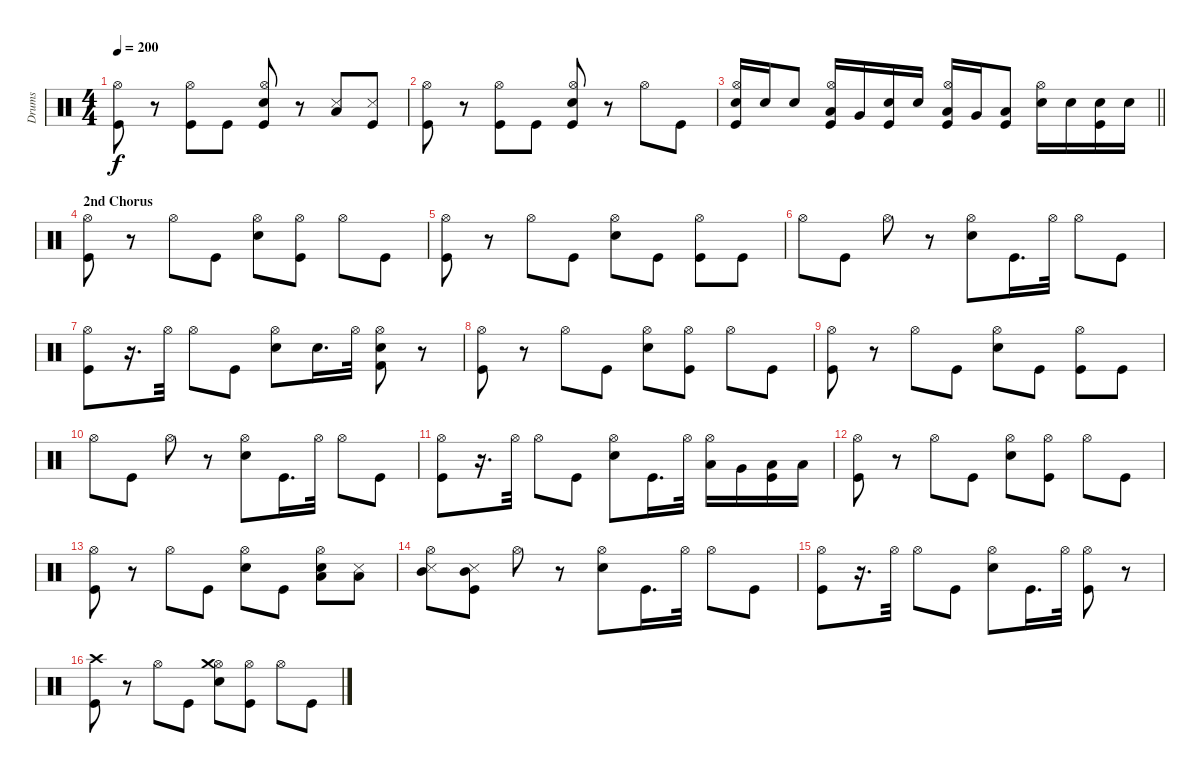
\track ("Drums" "Drums") {instrument percussion}
\staff {score}
\articulation defaults
\ts (4 4)
\tempo 200
\clef neutral
\ks c
("Kick (hit)" "Hi-Hat (open)").8{dy f} r.8 ("Kick (hit)" "Hi-Hat (open)").8 "Kick (hit)".8 ("Kick (hit)" "Electric Snare (hit)" "Hi-Hat (open)").8 r.8 ("Snare (side stick) 3" "Low Floor Tom (hit)").8 ("Kick (hit)" "Snare (side stick) 3").8 |
("Kick (hit)" "Hi-Hat (open)").8 r.8 ("Kick (hit)" "Hi-Hat (open)").8 "Kick (hit)".8 ("Kick (hit)" "Electric Snare (hit)" "Hi-Hat (open)").8 r.8 "Hi-Hat (open)".8 "Kick (hit)".8 |
\barLineRight lightlight
("Kick (hit)" "Snare (hit) 2" "Hi-Hat (open)").16 "Electric Snare (hit)".16 "Electric Snare (hit)".8 ("Kick (hit)" "Hi-Hat (open)" "Low Tom (hit)").16 "Very Low Tom (hit)".16 ("Kick (hit)" "Snare (hit) 2").16 "Electric Snare (hit)".16 ("Kick (hit)" "Hi-Hat (open)" "Low Tom (hit)").16 "Very Low Tom (hit)".16 ("Kick (hit)" "Low Floor Tom (hit)").8 ("Snare (hit) 2" "Hi-Hat (open)").16 "Electric Snare (hit)".16 ("Kick (hit)" "Snare (hit) 2").16 "Electric Snare (hit)".16 |
\section ("" "2nd Chorus")
("Kick (hit)" "Hi-Hat (open)").8 r.8 "Hi-Hat (open)".8 "Kick (hit)".8 ("Electric Snare (hit)" "Hi-Hat (open)").8 ("Kick (hit)" "Hi-Hat (open)").8 "Hi-Hat (open)".8 "Kick (hit)".8 |
("Kick (hit)" "Hi-Hat (open)").8 r.8 "Hi-Hat (open)".8 "Kick (hit)".8 ("Electric Snare (hit)" "Hi-Hat (open)").8 "Kick (hit)".8 ("Kick (hit)" "Hi-Hat (open)").8 "Kick (hit)".8 |
"Hi-Hat (open)".8 "Kick (hit)".8 "Hi-Hat (open)".8 r.8 ("Electric Snare (hit)" "Hi-Hat (open)").8 "Kick (hit)".16{d} "Hi-Hat (open)".32 "Hi-Hat (open)".8 "Kick (hit)".8 |
("Kick (hit)" "Hi-Hat (open)").8 r.16{d} "Hi-Hat (open)".32 "Hi-Hat (open)".8 "Kick (hit)".8 ("Electric Snare (hit)" "Hi-Hat (open)").8 "Snare (hit) 2".16{d} "Hi-Hat (open)".32 ("Kick (hit) 2" "Electric Snare (hit)" "Hi-Hat (open)").8 r.8 |
("Kick (hit)" "Hi-Hat (open)").8 r.8 "Hi-Hat (open)".8 "Kick (hit)".8 ("Electric Snare (hit)" "Hi-Hat (open)").8 ("Kick (hit)" "Hi-Hat (open)").8 "Hi-Hat (open)".8 "Kick (hit)".8 |
("Kick (hit)" "Hi-Hat (open)").8 r.8 "Hi-Hat (open)".8 "Kick (hit)".8 ("Electric Snare (hit)" "Hi-Hat (open)").8 "Kick (hit)".8 ("Kick (hit)" "Hi-Hat (open)").8 "Kick (hit)".8 |
"Hi-Hat (open)".8 "Kick (hit)".8 "Hi-Hat (open)".8 r.8 ("Electric Snare (hit)" "Hi-Hat (open)").8 "Kick (hit)".16{d} "Hi-Hat (open)".32 "Hi-Hat (open)".8 "Kick (hit)".8 |
("Kick (hit)" "Hi-Hat (open)").8 r.16{d} "Hi-Hat (open)".32 "Hi-Hat (open)".8 "Kick (hit)".8 ("Electric Snare (hit)" "Hi-Hat (open)").8 "Kick (hit)".16{d} "Hi-Hat (open)".32 ("Hi-Hat (open)" "Low Tom (hit)").16 "Very Low Tom (hit)".16 ("Kick (hit)" "Low Floor Tom (hit)").16 "Low Floor Tom (hit)".16 |
("Kick (hit)" "Hi-Hat (open)").8 r.8 "Hi-Hat (open)".8 "Kick (hit)".8 ("Electric Snare (hit)" "Hi-Hat (open)").8 ("Kick (hit)" "Hi-Hat (open)").8 "Hi-Hat (open)".8 "Kick (hit)".8 |
("Kick (hit)" "Hi-Hat (open)").8 r.8 "Hi-Hat (open)".8 "Kick (hit)".8 ("Electric Snare (hit)" "Hi-Hat (open)").8 "Kick (hit)".8 ("Snare (hit) 2" "Hi-Hat (open)" "Low Tom (hit)").8 ("Snare (side stick) 3" "Low Floor Tom (hit)").8 |
("Snare (side stick) 3" "Hi-Hat (open)" "Mid Tom (hit)").8 ("Kick (hit)" "Snare (side stick) 3" "Mid Tom (hit)").8 "Hi-Hat (open)".8 r.8 ("Electric Snare (hit)" "Hi-Hat (open)").8 "Kick (hit)".16{d} "Hi-Hat (open)".32 "Hi-Hat (open)".8 "Kick (hit)".8 |
("Kick (hit)" "Hi-Hat (open)").8 r.16{d} "Hi-Hat (open)".32 "Hi-Hat (open)".8 "Kick (hit)".8 ("Electric Snare (hit)" "Hi-Hat (open)").8 "Kick (hit)".16{d} "Hi-Hat (open)".32 ("Kick (hit)" "Hi-Hat (open)").8 r.8 |
("Kick (hit)" "Crash high (hit)").8 r.8 "Hi-Hat (open)".8 "Kick (hit)".8 ("Electric Snare (hit)" "Hi-Hat (open)" "Crash medium (hit)").8 ("Kick (hit)" "Hi-Hat (open)").8 "Hi-Hat (open)".8 "Kick (hit)".8
